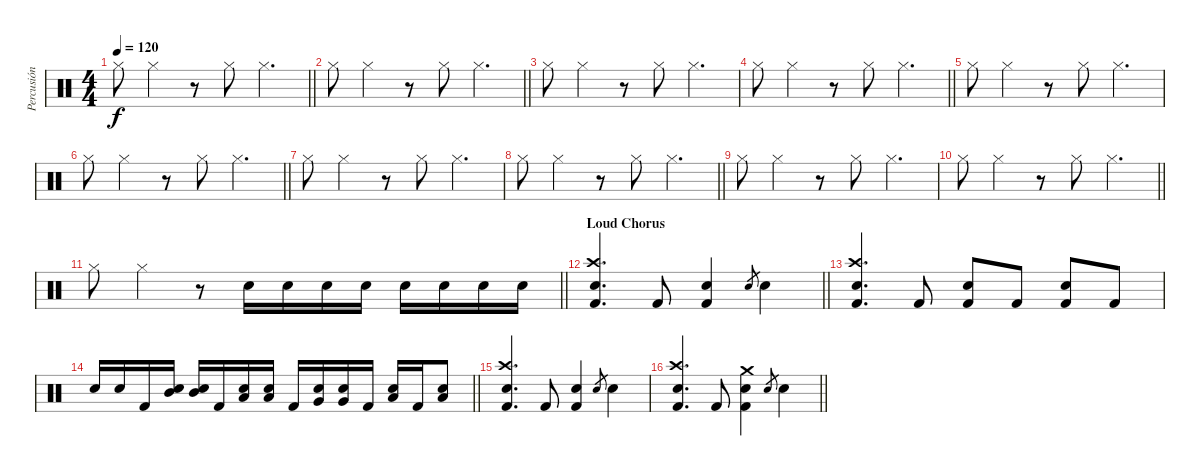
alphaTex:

\track ("Percusión" "Percusión") {instrument percussion}
\staff {score}
\articulation defaults
\ts (4 4)
\tempo 120
\clef neutral
\barLineRight lightlight
\ks c "Hi-Hat (closed)".8{dy f} "Hi-Hat (closed)".4
r.8 "Hi-Hat (closed)".8 "Hi-Hat (closed)".4{d} |
\barLineRight lightlight "Hi-Hat (closed)".8 "Hi-Hat (closed)".4
r.8 "Hi-Hat (closed)".8 "Hi-Hat (closed)".4{d} |
"Hi-Hat (closed)".8 "Hi-Hat (closed)".4 r.8 "Hi-Hat (closed)".8 "Hi-Hat (closed)".4{d} |
\barLineRight lightlight "Hi-Hat (closed)".8 "Hi-Hat (closed)".4
r.8 "Hi-Hat (closed)".8 "Hi-Hat (closed)".4{d} |
"Hi-Hat (closed)".8 "Hi-Hat (closed)".4 r.8 "Hi-Hat (closed)".8 "Hi-Hat (closed)".4{d} |
\barLineRight lightlight "Hi-Hat (closed)".8 "Hi-Hat (closed)".4
r.8 "Hi-Hat (closed)".8 "Hi-Hat (closed)".4{d} |
"Hi-Hat (closed)".8 "Hi-Hat (closed)".4 r.8 "Hi-Hat (closed)".8 "Hi-Hat (closed)".4{d} |
\barLineRight lightlight "Hi-Hat (closed)".8 "Hi-Hat (closed)".4
r.8 "Hi-Hat (closed)".8 "Hi-Hat (closed)".4{d} |
"Hi-Hat (closed)".8 "Hi-Hat (closed)".4 r.8 "Hi-Hat (closed)".8 "Hi-Hat (closed)".4{d} |
\barLineRight lightlight "Hi-Hat (closed)".8 "Hi-Hat (closed)".4
r.8 "Hi-Hat (closed)".8 "Hi-Hat (closed)".4{d} |
\barLineRight lightlight "Hi-Hat (closed)".8 "Hi-Hat (closed)".4
r.8 "Electric Snare (hit)".16 "Electric Snare (hit)".16 "Electric Snare (hit)".16 "Electric Snare (hit)".16 "Electric Snare (hit)".16 "Electric Snare (hit)".16 "Electric Snare (hit)".16 "Electric Snare (hit)".16 |
\section ("" "Loud Chorus")
\barLineRight lightlight
("Crash high (hit)" "Electric Snare (hit)" "Kick (hit) 2").4{d} "Kick (hit) 2".8 ("Electric Snare (hit)" "Kick (hit) 2").4 "Electric Snare (hit)".8{gr} "Electric Snare (hit)".4 |
\section ("" "")
("Crash high (hit)" "Electric Snare (hit)" "Kick (hit) 2").4{d} "Kick (hit) 2".8 ("Electric Snare (hit)" "Kick (hit) 2").8 "Kick (hit) 2".8 ("Electric Snare (hit)" "Kick (hit) 2").8 "Kick (hit) 2".8 |
\barLineRight lightlight "Electric Snare (hit)".16 "Electric Snare (hit)".16 "Kick (hit) 2".16
("Electric Snare (hit)" "Mid Tom (hit)").16 ("Electric Snare (hit)" "Mid Tom (hit)").16 "Kick (hit) 2".16 ("Electric Snare (hit)" "Low Tom (hit)").16 ("Electric Snare (hit)" "Low Tom (hit)").16 "Kick (hit) 2".16 ("Electric Snare (hit)" "Very Low Tom (hit)").16 ("Electric Snare (hit)" "Very Low Tom (hit)").16 "Kick (hit) 2".16 ("Electric Snare (hit)" "Low Floor Tom (hit)").16 "Kick (hit) 2".16 ("Electric Snare (hit)" "Low Floor Tom (hit)").8 |
("Crash high (hit)" "Electric Snare (hit)" "Kick (hit) 2").4{d} "Kick (hit) 2".8 ("Electric Snare (hit)" "Kick (hit) 2").4 "Electric Snare (hit)".8{gr} "Electric Snare (hit)".4 |
\barLineRight lightlight
("Crash high (hit)" "Electric Snare (hit)" "Kick (hit) 2").4{d} "Kick (hit) 2".8 ("Crash medium (hit)" "Electric Snare (hit)" "Kick (hit) 2").4 "Electric Snare (hit)".8{gr} "Electric Snare (hit)".4
